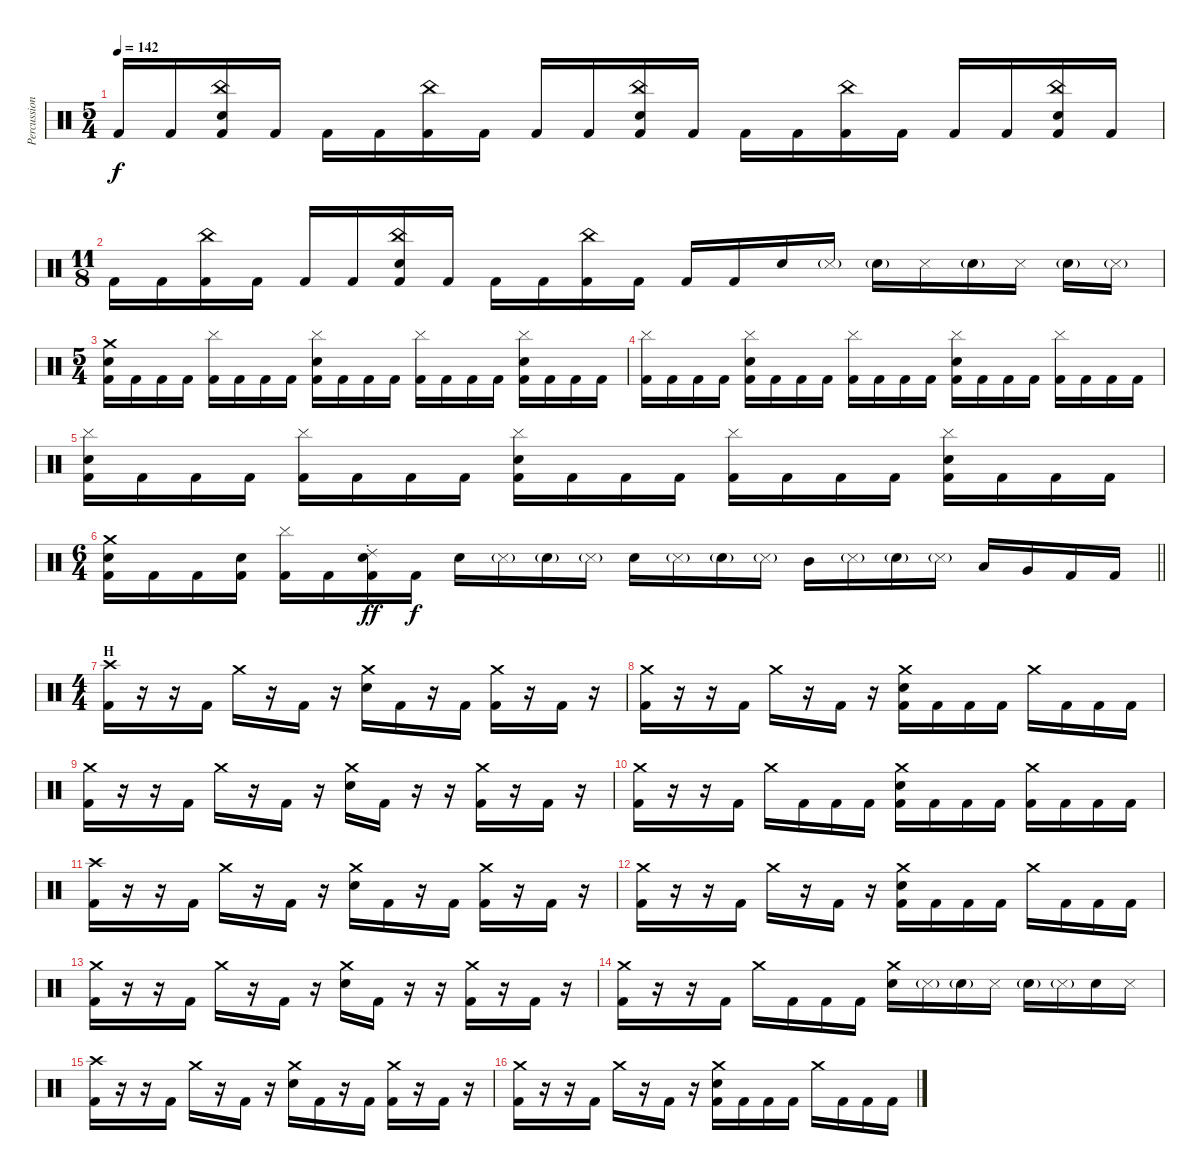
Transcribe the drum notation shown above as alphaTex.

\track ("Percussion" "Percussion") {instrument percussion}
\staff {score}
\articulation defaults
\ts (5 4)
\tempo 142
\clef neutral
\ks c "Kick (hit) 2".16{dy f} "Kick (hit) 2".16
("China (hit)" "Snare (hit) 2" "Kick (hit) 2").16 "Kick (hit) 2".16 "Kick (hit) 2".16 "Kick (hit) 2".16 ("China (hit)" "Kick (hit) 2").16 "Kick (hit) 2".16 "Kick (hit) 2".16 "Kick (hit) 2".16 ("China (hit)" "Snare (hit) 2" "Kick (hit) 2").16 "Kick (hit) 2".16 "Kick (hit) 2".16 "Kick (hit) 2".16 ("China (hit)" "Kick (hit) 2").16 "Kick (hit) 2".16 "Kick (hit) 2".16 "Kick (hit) 2".16 ("China (hit)" "Snare (hit) 2" "Kick (hit) 2").16 "Kick (hit) 2".16 |
\ts (11 8)
"Kick (hit) 2".16 "Kick (hit) 2".16 ("China (hit)" "Kick (hit) 2").16 "Kick (hit) 2".16 "Kick (hit) 2".16 "Kick (hit) 2".16 ("China (hit)" "Snare (hit) 2" "Kick (hit) 2").16 "Kick (hit) 2".16 "Kick (hit) 2".16 "Kick (hit) 2".16 ("China (hit)" "Kick (hit) 2").16 "Kick (hit) 2".16 "Kick (hit) 2".16 "Kick (hit) 2".16 "Snare (hit) 2".16 "Metronome (hit)"{g}.16 "Snare (hit) 2"{g}.16 "Metronome (hit)".16 "Snare (hit) 2"{g}.16 "Metronome (hit)".16 "Snare (hit) 2"{g}.16 "Metronome (hit)"{g}.16 |
\ts (5 4)
("Crash medium (hit)" "Snare (hit) 2" "Kick (hit) 2").16 "Kick (hit) 2".16 "Kick (hit) 2".16 "Kick (hit) 2".16 ("Cymbal (hit)" "Kick (hit) 2").16 "Kick (hit) 2".16 "Kick (hit) 2".16 "Kick (hit) 2".16 ("Cymbal (hit)" "Snare (hit) 2" "Kick (hit) 2").16 "Kick (hit) 2".16 "Kick (hit) 2".16 "Kick (hit) 2".16 ("Cymbal (hit)" "Kick (hit) 2").16 "Kick (hit) 2".16 "Kick (hit) 2".16 "Kick (hit) 2".16 ("Cymbal (hit)" "Snare (hit) 2" "Kick (hit) 2").16 "Kick (hit) 2".16 "Kick (hit) 2".16 "Kick (hit) 2".16 |
("Cymbal (hit)" "Kick (hit) 2").16 "Kick (hit) 2".16 "Kick (hit) 2".16 "Kick (hit) 2".16 ("Cymbal (hit)" "Snare (hit) 2" "Kick (hit) 2").16 "Kick (hit) 2".16 "Kick (hit) 2".16 "Kick (hit) 2".16 ("Cymbal (hit)" "Kick (hit) 2").16 "Kick (hit) 2".16 "Kick (hit) 2".16 "Kick (hit) 2".16 ("Cymbal (hit)" "Snare (hit) 2" "Kick (hit) 2").16 "Kick (hit) 2".16 "Kick (hit) 2".16 "Kick (hit) 2".16 ("Cymbal (hit)" "Kick (hit) 2").16 "Kick (hit) 2".16 "Kick (hit) 2".16 "Kick (hit) 2".16 |
("Cymbal (hit)" "Snare (hit) 2" "Kick (hit) 2").16 "Kick (hit) 2".16 "Kick (hit) 2".16 "Kick (hit) 2".16 ("Cymbal (hit)" "Kick (hit) 2").16 "Kick (hit) 2".16 "Kick (hit) 2".16 "Kick (hit) 2".16 ("Cymbal (hit)" "Snare (hit) 2" "Kick (hit) 2").16 "Kick (hit) 2".16 "Kick (hit) 2".16 "Kick (hit) 2".16 ("Cymbal (hit)" "Kick (hit) 2").16 "Kick (hit) 2".16 "Kick (hit) 2".16 "Kick (hit) 2".16 ("Cymbal (hit)" "Snare (hit) 2" "Kick (hit) 2").16 "Kick (hit) 2".16 "Kick (hit) 2".16 "Kick (hit) 2".16 |
\ts (6 4)
\barLineRight lightlight
("Crash medium (hit)" "Snare (hit) 2" "Kick (hit) 2").16 "Kick (hit) 2".16 "Kick (hit) 2".16 ("Snare (hit) 2" "Kick (hit) 2").16 ("Cymbal (hit)" "Kick (hit) 2").16 "Kick (hit) 2".16 ("Ride (choke) 2" "Snare (hit) 2" "Kick (hit) 2").16{dy ff} "Kick (hit) 2".16{dy f} "Snare (hit) 2".16 "Metronome (hit)"{g}.16 "Snare (hit) 2"{g}.16 "Metronome (hit)"{g}.16 "Snare (hit) 2".16 "Metronome (hit)"{g}.16 "Snare (hit) 2"{g}.16 "Metronome (hit)"{g}.16 "Mid Tom (hit)".16 "Metronome (hit)"{g}.16 "Snare (hit) 2"{g}.16 "Metronome (hit)"{g}.16 "Low Tom (hit)".16 "Very Low Tom (hit)".16 "Kick (hit) 2".16 "Kick (hit) 2".16 |
\ts (4 4)
\section ("" "H")
("Crash high (hit)" "Kick (hit) 2").16 r.16 r.16 "Kick (hit) 2".16 "Crash medium (hit)".16 r.16 "Kick (hit) 2".16 r.16 ("Crash medium (hit)" "Snare (hit) 2").16 "Kick (hit) 2".16 r.16 "Kick (hit) 2".16 ("Crash medium (hit)" "Kick (hit) 2").16 r.16 "Kick (hit) 2".16 r.16 |
("Crash medium (hit)" "Kick (hit) 2").16 r.16 r.16 "Kick (hit) 2".16 "Crash medium (hit)".16 r.16 "Kick (hit) 2".16 r.16 ("Crash medium (hit)" "Snare (hit) 2" "Kick (hit) 2").16 "Kick (hit) 2".16 "Kick (hit) 2".16 "Kick (hit) 2".16 "Crash medium (hit)".16 "Kick (hit) 2".16 "Kick (hit) 2".16 "Kick (hit) 2".16 |
("Crash medium (hit)" "Kick (hit) 2").16 r.16 r.16 "Kick (hit) 2".16 "Crash medium (hit)".16 r.16 "Kick (hit) 2".16 r.16 ("Crash medium (hit)" "Snare (hit) 2").16 "Kick (hit) 2".16 r.16 r.16 ("Crash medium (hit)" "Kick (hit) 2").16 r.16 "Kick (hit) 2".16 r.16 |
("Crash medium (hit)" "Kick (hit) 2").16 r.16 r.16 "Kick (hit) 2".16 "Crash medium (hit)".16 "Kick (hit) 2".16 "Kick (hit) 2".16 "Kick (hit) 2".16 ("Crash medium (hit)" "Snare (hit) 2" "Kick (hit) 2").16 "Kick (hit) 2".16 "Kick (hit) 2".16 "Kick (hit) 2".16 ("Crash medium (hit)" "Kick (hit) 2").16 "Kick (hit) 2".16 "Kick (hit) 2".16 "Kick (hit) 2".16 |
("Crash high (hit)" "Kick (hit) 2").16 r.16 r.16 "Kick (hit) 2".16 "Crash medium (hit)".16 r.16 "Kick (hit) 2".16 r.16 ("Crash medium (hit)" "Snare (hit) 2").16 "Kick (hit) 2".16 r.16 "Kick (hit) 2".16 ("Crash medium (hit)" "Kick (hit) 2").16 r.16 "Kick (hit) 2".16 r.16 |
("Crash medium (hit)" "Kick (hit) 2").16 r.16 r.16 "Kick (hit) 2".16 "Crash medium (hit)".16 r.16 "Kick (hit) 2".16 r.16 ("Crash medium (hit)" "Snare (hit) 2" "Kick (hit) 2").16 "Kick (hit) 2".16 "Kick (hit) 2".16 "Kick (hit) 2".16 "Crash medium (hit)".16 "Kick (hit) 2".16 "Kick (hit) 2".16 "Kick (hit) 2".16 |
("Crash medium (hit)" "Kick (hit) 2").16 r.16 r.16 "Kick (hit) 2".16 "Crash medium (hit)".16 r.16 "Kick (hit) 2".16 r.16 ("Crash medium (hit)" "Snare (hit) 2").16 "Kick (hit) 2".16 r.16 r.16 ("Crash medium (hit)" "Kick (hit) 2").16 r.16 "Kick (hit) 2".16 r.16 |
("Crash medium (hit)" "Kick (hit) 2").16 r.16 r.16 "Kick (hit) 2".16 "Crash medium (hit)".16 "Kick (hit) 2".16 "Kick (hit) 2".16 "Kick (hit) 2".16 ("Crash medium (hit)" "Snare (hit) 2").16 "Metronome (hit)"{g}.16 "Snare (hit) 2"{g}.16 "Metronome (hit)".16 "Snare (hit) 2"{g}.16 "Metronome (hit)"{g}.16 "Snare (hit) 2".16 "Metronome (hit)".16 |
("Crash high (hit)" "Kick (hit) 2").16 r.16 r.16 "Kick (hit) 2".16 "Crash medium (hit)".16 r.16 "Kick (hit) 2".16 r.16 ("Crash medium (hit)" "Snare (hit) 2").16 "Kick (hit) 2".16 r.16 "Kick (hit) 2".16 ("Crash medium (hit)" "Kick (hit) 2").16 r.16 "Kick (hit) 2".16 r.16 |
("Crash medium (hit)" "Kick (hit) 2").16 r.16 r.16 "Kick (hit) 2".16 "Crash medium (hit)".16 r.16 "Kick (hit) 2".16 r.16 ("Crash medium (hit)" "Snare (hit) 2" "Kick (hit) 2").16 "Kick (hit) 2".16 "Kick (hit) 2".16 "Kick (hit) 2".16 "Crash medium (hit)".16 "Kick (hit) 2".16 "Kick (hit) 2".16 "Kick (hit) 2".16
